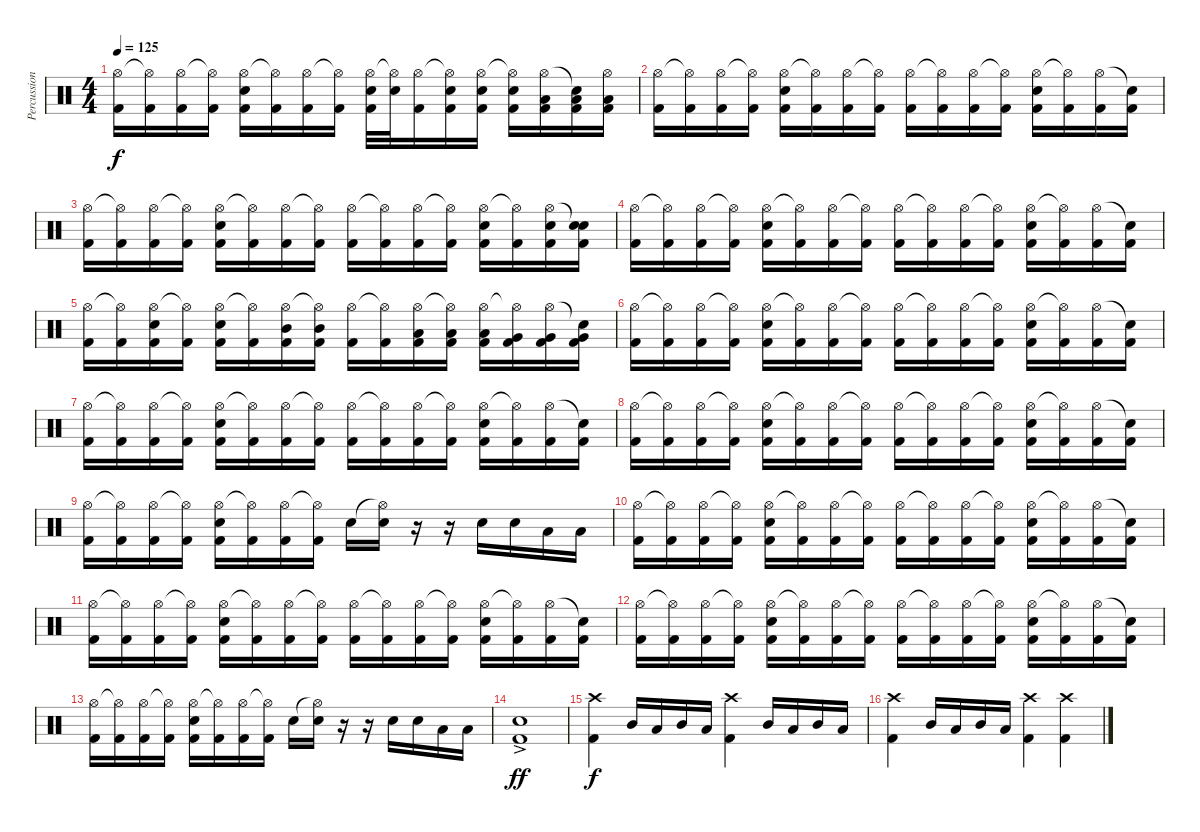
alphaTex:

\track ("Percussion" "Percussion") {instrument percussion}
\staff {score}
\articulation defaults
\ts (4 4)
\tempo 125
\clef neutral
\ks c
("Hi-Hat (open)" "Kick (hit) 2").16{dy f} ("Hi-Hat (open)"{t} "Kick (hit) 2").16 ("Hi-Hat (open)" "Kick (hit) 2").16 ("Hi-Hat (open)"{t} "Kick (hit) 2").16 ("Hi-Hat (open)" "Electric Snare (hit)" "Kick (hit) 2").16 ("Hi-Hat (open)"{t} "Kick (hit) 2").16 ("Hi-Hat (open)" "Kick (hit) 2").16 ("Hi-Hat (open)"{t} "Kick (hit) 2").16 ("Hi-Hat (open)" "Electric Snare (hit)" "Kick (hit) 2").32 ("Hi-Hat (open)"{t} "Electric Snare (hit)").32 ("Hi-Hat (open)" "Kick (hit) 2").16 ("Hi-Hat (open)"{t} "Electric Snare (hit)" "Kick (hit) 2").16 ("Hi-Hat (open)" "Electric Snare (hit)" "Kick (hit) 2").16 ("Hi-Hat (open)"{t} "Electric Snare (hit)" "Kick (hit) 2").16 ("Hi-Hat (open)" "Low Tom (hit)" "Kick (hit) 2").16 ("Snare (hit)"{t} "Low Tom (hit)" "Kick (hit) 2").16 ("Hi-Hat (open)" "Low Tom (hit)" "Kick (hit) 2").16 |
("Hi-Hat (open)" "Kick (hit) 2").16 ("Hi-Hat (open)"{t} "Kick (hit) 2").16 ("Hi-Hat (open)" "Kick (hit) 2").16 ("Hi-Hat (open)"{t} "Kick (hit) 2").16 ("Hi-Hat (open)" "Electric Snare (hit)" "Kick (hit) 2").16 ("Hi-Hat (open)"{t} "Kick (hit) 2").16 ("Hi-Hat (open)" "Kick (hit) 2").16 ("Hi-Hat (open)"{t} "Kick (hit) 2").16 ("Hi-Hat (open)" "Kick (hit) 2").16 ("Hi-Hat (open)"{t} "Kick (hit) 2").16 ("Hi-Hat (open)" "Kick (hit) 2").16 ("Hi-Hat (open)"{t} "Kick (hit) 2").16 ("Hi-Hat (open)" "Electric Snare (hit)" "Kick (hit) 2").16 ("Hi-Hat (open)"{t} "Kick (hit) 2").16 ("Hi-Hat (open)" "Kick (hit) 2").16 ("Snare (hit)"{t} "Kick (hit) 2").16 |
("Hi-Hat (open)" "Kick (hit) 2").16 ("Hi-Hat (open)"{t} "Kick (hit) 2").16 ("Hi-Hat (open)" "Kick (hit) 2").16 ("Hi-Hat (open)"{t} "Kick (hit) 2").16 ("Hi-Hat (open)" "Electric Snare (hit)" "Kick (hit) 2").16 ("Hi-Hat (open)"{t} "Kick (hit) 2").16 ("Hi-Hat (open)" "Kick (hit) 2").16 ("Hi-Hat (open)"{t} "Kick (hit) 2").16 ("Hi-Hat (open)" "Kick (hit) 2").16 ("Hi-Hat (open)"{t} "Kick (hit) 2").16 ("Hi-Hat (open)" "Kick (hit) 2").16 ("Hi-Hat (open)"{t} "Kick (hit) 2").16 ("Hi-Hat (open)" "Electric Snare (hit)" "Kick (hit) 2").16 ("Hi-Hat (open)"{t} "Kick (hit) 2").16 ("Hi-Hat (open)" "Electric Snare (hit)" "Kick (hit) 2").16 ("Snare (hit)"{t} "Electric Snare (hit)" "Kick (hit) 2").16 |
("Hi-Hat (open)" "Kick (hit) 2").16 ("Hi-Hat (open)"{t} "Kick (hit) 2").16 ("Hi-Hat (open)" "Kick (hit) 2").16 ("Hi-Hat (open)"{t} "Kick (hit) 2").16 ("Hi-Hat (open)" "Electric Snare (hit)" "Kick (hit) 2").16 ("Hi-Hat (open)"{t} "Kick (hit) 2").16 ("Hi-Hat (open)" "Kick (hit) 2").16 ("Hi-Hat (open)"{t} "Kick (hit) 2").16 ("Hi-Hat (open)" "Kick (hit) 2").16 ("Hi-Hat (open)"{t} "Kick (hit) 2").16 ("Hi-Hat (open)" "Kick (hit) 2").16 ("Hi-Hat (open)"{t} "Kick (hit) 2").16 ("Hi-Hat (open)" "Electric Snare (hit)" "Kick (hit) 2").16 ("Hi-Hat (open)"{t} "Kick (hit) 2").16 ("Hi-Hat (open)" "Kick (hit) 2").16 ("Snare (hit)"{t} "Kick (hit) 2").16 |
("Hi-Hat (open)" "Kick (hit) 2").16 ("Hi-Hat (open)"{t} "Kick (hit) 2").16 ("Hi-Hat (open)" "Electric Snare (hit)" "Kick (hit) 2").16 ("Hi-Hat (open)"{t} "Kick (hit) 2").16 ("Hi-Hat (open)" "Electric Snare (hit)" "Kick (hit) 2").16 ("Hi-Hat (open)"{t} "Kick (hit) 2").16 ("Hi-Hat (open)" "Mid Tom (hit)" "Kick (hit) 2").16 ("Hi-Hat (open)"{t} "Mid Tom (hit)" "Kick (hit) 2").16 ("Hi-Hat (open)" "Kick (hit) 2").16 ("Hi-Hat (open)"{t} "Kick (hit) 2").16 ("Hi-Hat (open)" "Low Tom (hit)" "Kick (hit) 2").16 ("Hi-Hat (open)"{t} "Low Tom (hit)" "Kick (hit) 2").16 ("Hi-Hat (open)" "Low Tom (hit)" "Kick (hit) 2").16 ("Hi-Hat (open)"{t} "Very Low Tom (hit)" "Kick (hit) 2").16 ("Hi-Hat (open)" "Very Low Tom (hit)" "Kick (hit) 2").16 ("Snare (hit)"{t} "Very Low Tom (hit)" "Kick (hit) 2").16 |
("Hi-Hat (open)" "Kick (hit) 2").16 ("Hi-Hat (open)"{t} "Kick (hit) 2").16 ("Hi-Hat (open)" "Kick (hit) 2").16 ("Hi-Hat (open)"{t} "Kick (hit) 2").16 ("Hi-Hat (open)" "Electric Snare (hit)" "Kick (hit) 2").16 ("Hi-Hat (open)"{t} "Kick (hit) 2").16 ("Hi-Hat (open)" "Kick (hit) 2").16 ("Hi-Hat (open)"{t} "Kick (hit) 2").16 ("Hi-Hat (open)" "Kick (hit) 2").16 ("Hi-Hat (open)"{t} "Kick (hit) 2").16 ("Hi-Hat (open)" "Kick (hit) 2").16 ("Hi-Hat (open)"{t} "Kick (hit) 2").16 ("Hi-Hat (open)" "Electric Snare (hit)" "Kick (hit) 2").16 ("Hi-Hat (open)"{t} "Kick (hit) 2").16 ("Hi-Hat (open)" "Kick (hit) 2").16 ("Snare (hit)"{t} "Kick (hit) 2").16 |
("Hi-Hat (open)" "Kick (hit) 2").16 ("Hi-Hat (open)"{t} "Kick (hit) 2").16 ("Hi-Hat (open)" "Kick (hit) 2").16 ("Hi-Hat (open)"{t} "Kick (hit) 2").16 ("Hi-Hat (open)" "Electric Snare (hit)" "Kick (hit) 2").16 ("Hi-Hat (open)"{t} "Kick (hit) 2").16 ("Hi-Hat (open)" "Kick (hit) 2").16 ("Hi-Hat (open)"{t} "Kick (hit) 2").16 ("Hi-Hat (open)" "Kick (hit) 2").16 ("Hi-Hat (open)"{t} "Kick (hit) 2").16 ("Hi-Hat (open)" "Kick (hit) 2").16 ("Hi-Hat (open)"{t} "Kick (hit) 2").16 ("Hi-Hat (open)" "Electric Snare (hit)" "Kick (hit) 2").16 ("Hi-Hat (open)"{t} "Kick (hit) 2").16 ("Hi-Hat (open)" "Kick (hit) 2").16 ("Snare (hit)"{t} "Kick (hit) 2").16 |
("Hi-Hat (open)" "Kick (hit) 2").16 ("Hi-Hat (open)"{t} "Kick (hit) 2").16 ("Hi-Hat (open)" "Kick (hit) 2").16 ("Hi-Hat (open)"{t} "Kick (hit) 2").16 ("Hi-Hat (open)" "Electric Snare (hit)" "Kick (hit) 2").16 ("Hi-Hat (open)"{t} "Kick (hit) 2").16 ("Hi-Hat (open)" "Kick (hit) 2").16 ("Hi-Hat (open)"{t} "Kick (hit) 2").16 ("Hi-Hat (open)" "Kick (hit) 2").16 ("Hi-Hat (open)"{t} "Kick (hit) 2").16 ("Hi-Hat (open)" "Kick (hit) 2").16 ("Hi-Hat (open)"{t} "Kick (hit) 2").16 ("Hi-Hat (open)" "Electric Snare (hit)" "Kick (hit) 2").16 ("Hi-Hat (open)"{t} "Kick (hit) 2").16 ("Hi-Hat (open)" "Kick (hit) 2").16 ("Snare (hit)"{t} "Kick (hit) 2").16 |
("Hi-Hat (open)" "Kick (hit) 2").16 ("Hi-Hat (open)"{t} "Kick (hit) 2").16 ("Hi-Hat (open)" "Kick (hit) 2").16 ("Hi-Hat (open)"{t} "Kick (hit) 2").16 ("Hi-Hat (open)" "Electric Snare (hit)" "Kick (hit) 2").16 ("Hi-Hat (open)"{t} "Kick (hit) 2").16 ("Hi-Hat (open)" "Kick (hit) 2").16 ("Hi-Hat (open)"{t} "Kick (hit) 2").16 "Electric Snare (hit)".16 ("Hi-Hat (open)"{t} "Electric Snare (hit)").16 r.16 r.16 "Electric Snare (hit)".16 "Electric Snare (hit)".16 "Low Tom (hit)".16 "Low Tom (hit)".16 |
("Hi-Hat (open)" "Kick (hit) 2").16 ("Hi-Hat (open)"{t} "Kick (hit) 2").16 ("Hi-Hat (open)" "Kick (hit) 2").16 ("Hi-Hat (open)"{t} "Kick (hit) 2").16 ("Hi-Hat (open)" "Electric Snare (hit)" "Kick (hit) 2").16 ("Hi-Hat (open)"{t} "Kick (hit) 2").16 ("Hi-Hat (open)" "Kick (hit) 2").16 ("Hi-Hat (open)"{t} "Kick (hit) 2").16 ("Hi-Hat (open)" "Kick (hit) 2").16 ("Hi-Hat (open)"{t} "Kick (hit) 2").16 ("Hi-Hat (open)" "Kick (hit) 2").16 ("Hi-Hat (open)"{t} "Kick (hit) 2").16 ("Hi-Hat (open)" "Electric Snare (hit)" "Kick (hit) 2").16 ("Hi-Hat (open)"{t} "Kick (hit) 2").16 ("Hi-Hat (open)" "Kick (hit) 2").16 ("Snare (hit)"{t} "Kick (hit) 2").16 |
("Hi-Hat (open)" "Kick (hit) 2").16 ("Hi-Hat (open)"{t} "Kick (hit) 2").16 ("Hi-Hat (open)" "Kick (hit) 2").16 ("Hi-Hat (open)"{t} "Kick (hit) 2").16 ("Hi-Hat (open)" "Electric Snare (hit)" "Kick (hit) 2").16 ("Hi-Hat (open)"{t} "Kick (hit) 2").16 ("Hi-Hat (open)" "Kick (hit) 2").16 ("Hi-Hat (open)"{t} "Kick (hit) 2").16 ("Hi-Hat (open)" "Kick (hit) 2").16 ("Hi-Hat (open)"{t} "Kick (hit) 2").16 ("Hi-Hat (open)" "Kick (hit) 2").16 ("Hi-Hat (open)"{t} "Kick (hit) 2").16 ("Hi-Hat (open)" "Electric Snare (hit)" "Kick (hit) 2").16 ("Hi-Hat (open)"{t} "Kick (hit) 2").16 ("Hi-Hat (open)" "Kick (hit) 2").16 ("Snare (hit)"{t} "Kick (hit) 2").16 |
("Hi-Hat (open)" "Kick (hit) 2").16 ("Hi-Hat (open)"{t} "Kick (hit) 2").16 ("Hi-Hat (open)" "Kick (hit) 2").16 ("Hi-Hat (open)"{t} "Kick (hit) 2").16 ("Hi-Hat (open)" "Electric Snare (hit)" "Kick (hit) 2").16 ("Hi-Hat (open)"{t} "Kick (hit) 2").16 ("Hi-Hat (open)" "Kick (hit) 2").16 ("Hi-Hat (open)"{t} "Kick (hit) 2").16 ("Hi-Hat (open)" "Kick (hit) 2").16 ("Hi-Hat (open)"{t} "Kick (hit) 2").16 ("Hi-Hat (open)" "Kick (hit) 2").16 ("Hi-Hat (open)"{t} "Kick (hit) 2").16 ("Hi-Hat (open)" "Electric Snare (hit)" "Kick (hit) 2").16 ("Hi-Hat (open)"{t} "Kick (hit) 2").16 ("Hi-Hat (open)" "Kick (hit) 2").16 ("Snare (hit)"{t} "Kick (hit) 2").16 |
("Hi-Hat (open)" "Kick (hit) 2").16 ("Hi-Hat (open)"{t} "Kick (hit) 2").16 ("Hi-Hat (open)" "Kick (hit) 2").16 ("Hi-Hat (open)"{t} "Kick (hit) 2").16 ("Hi-Hat (open)" "Electric Snare (hit)" "Kick (hit) 2").16 ("Hi-Hat (open)"{t} "Kick (hit) 2").16 ("Hi-Hat (open)" "Kick (hit) 2").16 ("Hi-Hat (open)"{t} "Kick (hit) 2").16 "Electric Snare (hit)".16 ("Hi-Hat (open)"{t} "Electric Snare (hit)").16 r.16 r.16 "Electric Snare (hit)".16 "Electric Snare (hit)".16 "Low Tom (hit)".16 "Low Tom (hit)".16 |
("Electric Snare (hit)"{ac} "Kick (hit) 2").1{dy ff} |
("Crash high (hit)" "Kick (hit) 2").4{dy f} "Mid Tom (hit)".16 "Low Tom (hit)".16 "Mid Tom (hit)".16 "Low Tom (hit)".16 ("Crash high (hit)" "Kick (hit) 2").4 "Mid Tom (hit)".16 "Low Tom (hit)".16 "Mid Tom (hit)".16 "Low Tom (hit)".16 |
("Crash high (hit)" "Kick (hit) 2").4 "Mid Tom (hit)".16 "Low Tom (hit)".16 "Mid Tom (hit)".16 "Low Tom (hit)".16 ("Crash high (hit)" "Kick (hit) 2").4 ("Crash high (hit)" "Kick (hit) 2").4
